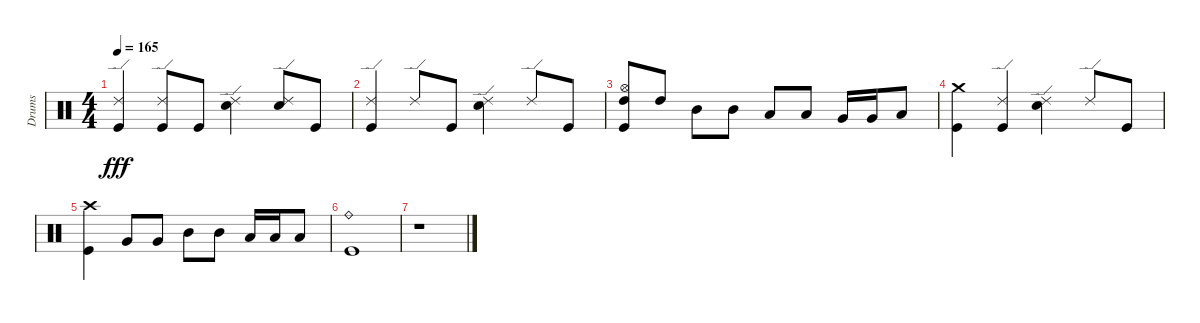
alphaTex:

\track ("Drums" "Drums") {instrument percussion}
\staff {score}
\articulation defaults
\ts (4 4)
\tempo 165
\clef neutral
\ks c
("Ride (edge) 2" "Kick (hit)").4{dy fff} ("Ride (edge) 2" "Kick (hit)").8 "Kick (hit)".8 ("Ride (edge) 2" "Snare (hit) 2").4 ("Ride (edge) 2" "Snare (hit) 2").8 "Kick (hit)".8 |
("Ride (edge) 2" "Kick (hit)").4 "Ride (edge) 2".8 "Kick (hit)".8 ("Ride (edge) 2" "Snare (hit) 2").4 "Ride (edge) 2".8 "Kick (hit)".8 |
("Hi-Hat (open)" "High Tom (hit)" "Kick (hit)").8 "High Tom (hit)".8 "Mid Tom (hit)".8 "Mid Tom (hit)".8 "Low Tom (hit)".8 "Low Tom (hit)".8 "Very Low Tom (hit)".16 "Very Low Tom (hit)".16 "Low Floor Tom (hit)".8 |
("Crash medium (hit)" "Kick (hit)").4 ("Ride (edge) 2" "Kick (hit)").4 ("Ride (edge) 2" "Snare (hit) 2").4 "Ride (edge) 2".8 "Kick (hit)".8 |
("Crash high (hit)" "Kick (hit)").4 "Very Low Tom (hit)".8 "Very Low Tom (hit)".8 "Mid Tom (hit)".8 "Mid Tom (hit)".8 "Low Tom (hit)".16 "Low Tom (hit)".16 "Low Floor Tom (hit)".8 |
("Ride (bell)" "Kick (hit)").1 |
r.1
